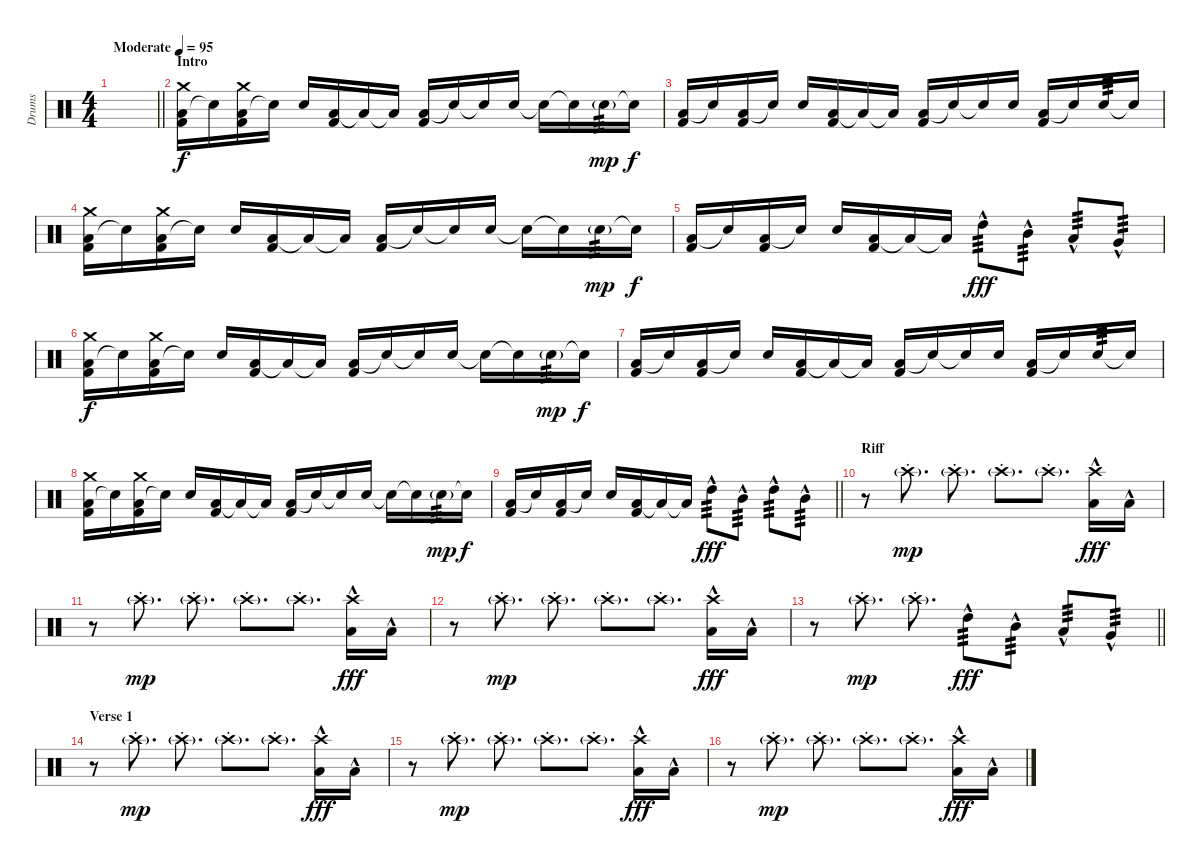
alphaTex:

\track ("Drums" "Drums") {instrument percussion}
\staff {score}
\articulation defaults
\ts (4 4)
\tempo (95 "Moderate")
\clef neutral
\barLineRight lightlight
\ks c
|
\section ("" "Intro")
("Low Floor Tom (hit)" "Kick (hit) 2" "Crash medium (hit)").16 "Snare (hit)"{t}.16 ("Low Floor Tom (hit)" "Kick (hit) 2" "Crash medium (hit)").16 "Snare (hit) 2"{t}.16 "Snare (hit) 2".16 ("Low Floor Tom (hit)" "Kick (hit) 2").16 "Low Floor Tom (hit)"{t}.16 "Low Floor Tom (hit)"{t}.16 ("Low Floor Tom (hit)" "Kick (hit) 2").16 "Snare (hit) 2"{t}.16 "Snare (hit)"{t}.16 "Snare (hit) 2".16 "Snare (hit) 2"{t}.16 "Snare (hit)"{t}.16 "Snare (hit) 2"{g}.16{tp 3 dy mp} "Snare (hit)"{t}.16{dy f} |
("Low Floor Tom (hit)" "Kick (hit) 2").16 "Snare (hit)"{t}.16 ("Low Floor Tom (hit)" "Kick (hit) 2").16 "Snare (hit) 2"{t}.16 "Snare (hit) 2".16 ("Low Floor Tom (hit)" "Kick (hit) 2").16 "Low Floor Tom (hit)"{t}.16 "Low Floor Tom (hit)"{t}.16 ("Low Floor Tom (hit)" "Kick (hit) 2").16 "Snare (hit) 2"{t}.16 "Snare (hit)"{t}.16 "Snare (hit) 2".16 ("Low Floor Tom (hit)" "Kick (hit) 2").16 "Snare (hit)"{t}.16 "Snare (hit) 2".16{tp 3} "Snare (hit)"{t}.16 |
("Low Floor Tom (hit)" "Kick (hit) 2" "Crash medium (hit)").16 "Snare (hit)"{t}.16 ("Low Floor Tom (hit)" "Kick (hit) 2" "Crash medium (hit)").16 "Snare (hit)"{t}.16 "Snare (hit) 2".16 ("Low Floor Tom (hit)" "Kick (hit) 2").16 "Low Floor Tom (hit)"{t}.16 "Low Floor Tom (hit)"{t}.16 ("Low Floor Tom (hit)" "Kick (hit) 2").16 "Snare (hit) 2"{t}.16 "Snare (hit)"{t}.16 "Snare (hit) 2".16 "Snare (hit) 2"{t}.16 "Snare (hit)"{t}.16 "Snare (hit) 2"{g}.16{tp 3 dy mp} "Snare (hit)"{t}.16{dy f} |
("Low Floor Tom (hit)" "Kick (hit) 2").16 "Snare (hit)"{t}.16 ("Low Floor Tom (hit)" "Kick (hit) 2").16 "Snare (hit) 2"{t}.16 "Snare (hit) 2".16 ("Low Floor Tom (hit)" "Kick (hit) 2").16 "Low Floor Tom (hit)"{t}.16 "Low Floor Tom (hit)"{t}.16 "High Tom (hit)"{hac}.8{tp 3 dy fff} "Mid Tom (hit)"{hac}.8{tp 3} "Low Tom (hit)"{hac}.8{tp 3} "Very Low Tom (hit)"{hac}.8{tp 3} |
("Low Floor Tom (hit)" "Kick (hit) 2" "Crash medium (hit)").16{dy f} "Snare (hit)"{t}.16 ("Low Floor Tom (hit)" "Kick (hit) 2" "Crash medium (hit)").16 "Snare (hit) 2"{t}.16 "Snare (hit) 2".16 ("Low Floor Tom (hit)" "Kick (hit) 2").16 "Low Floor Tom (hit)"{t}.16 "Low Floor Tom (hit)"{t}.16 ("Low Floor Tom (hit)" "Kick (hit) 2").16 "Snare (hit) 2"{t}.16 "Snare (hit)"{t}.16 "Snare (hit) 2".16 "Snare (hit) 2"{t}.16 "Snare (hit)"{t}.16 "Snare (hit) 2"{g}.16{tp 3 dy mp} "Snare (hit)"{t}.16{dy f} |
("Low Floor Tom (hit)" "Kick (hit) 2").16 "Snare (hit)"{t}.16 ("Low Floor Tom (hit)" "Kick (hit) 2").16 "Snare (hit) 2"{t}.16 "Snare (hit) 2".16 ("Low Floor Tom (hit)" "Kick (hit) 2").16 "Low Floor Tom (hit)"{t}.16 "Low Floor Tom (hit)"{t}.16 ("Low Floor Tom (hit)" "Kick (hit) 2").16 "Snare (hit) 2"{t}.16 "Snare (hit)"{t}.16 "Snare (hit) 2".16 ("Low Floor Tom (hit)" "Kick (hit) 2").16 "Snare (hit)"{t}.16 "Snare (hit) 2".16{tp 3} "Snare (hit)"{t}.16 |
("Low Floor Tom (hit)" "Kick (hit) 2" "Crash medium (hit)").16 "Snare (hit)"{t}.16 ("Low Floor Tom (hit)" "Kick (hit) 2" "Crash medium (hit)").16 "Snare (hit)"{t}.16 "Snare (hit) 2".16 ("Low Floor Tom (hit)" "Kick (hit) 2").16 "Low Floor Tom (hit)"{t}.16 "Low Floor Tom (hit)"{t}.16 ("Low Floor Tom (hit)" "Kick (hit) 2").16 "Snare (hit) 2"{t}.16 "Snare (hit)"{t}.16 "Snare (hit) 2".16 "Snare (hit) 2"{t}.16 "Snare (hit)"{t}.16 "Snare (hit) 2"{g}.16{tp 3 dy mp} "Snare (hit)"{t}.16{dy f} |
\barLineRight lightlight
("Low Floor Tom (hit)" "Kick (hit) 2").16 "Snare (hit)"{t}.16 ("Low Floor Tom (hit)" "Kick (hit) 2").16 "Snare (hit) 2"{t}.16 "Snare (hit) 2".16 ("Low Floor Tom (hit)" "Kick (hit) 2").16 "Low Floor Tom (hit)"{t}.16 "Low Floor Tom (hit)"{t}.16 "High Tom (hit)"{hac}.8{tp 3 dy fff} "Mid Tom (hit)"{hac}.8{tp 3} "High Tom (hit)"{hac}.8{tp 3} "Mid Tom (hit)"{hac}.8{tp 3} |
\section ("" "Riff")
r.8 "Crash high (hit)"{g st}.8{d dy mp} "Crash high (hit)"{g st}.8{d} "Crash high (hit)"{g st}.8{d} "Crash high (hit)"{g st}.8{d} ("Low Tom (hit)"{hac} "Crash high (hit)").16{dy fff} "Low Tom (hit)"{hac}.16 |
r.8 "Crash high (hit)"{g st}.8{d dy mp} "Crash high (hit)"{g st}.8{d} "Crash high (hit)"{g st}.8{d} "Crash high (hit)"{g st}.8{d} ("Low Tom (hit)"{hac} "Crash high (hit)").16{dy fff} "Low Tom (hit)"{hac}.16 |
r.8 "Crash high (hit)"{g st}.8{d dy mp} "Crash high (hit)"{g st}.8{d} "Crash high (hit)"{g st}.8{d} "Crash high (hit)"{g st}.8{d} ("Low Tom (hit)"{hac} "Crash high (hit)").16{dy fff} "Low Tom (hit)"{hac}.16 |
\barLineRight lightlight
r.8 "Crash high (hit)"{g st}.8{d dy mp} "Crash high (hit)"{g st}.8{d} "High Tom (hit)"{hac}.8{tp 3 dy fff} "Mid Tom (hit)"{hac}.8{tp 3} "Low Tom (hit)"{hac}.8{tp 3} "Very Low Tom (hit)"{hac}.8{tp 3} |
\section ("" "Verse 1")
r.8 "Crash high (hit)"{g st}.8{d dy mp} "Crash high (hit)"{g st}.8{d} "Crash high (hit)"{g st}.8{d} "Crash high (hit)"{g st}.8{d} ("Low Tom (hit)"{hac} "Crash high (hit)").16{dy fff} "Low Tom (hit)"{hac}.16 |
r.8 "Crash high (hit)"{g st}.8{d dy mp} "Crash high (hit)"{g st}.8{d} "Crash high (hit)"{g st}.8{d} "Crash high (hit)"{g st}.8{d} ("Low Tom (hit)"{hac} "Crash high (hit)").16{dy fff} "Low Tom (hit)"{hac}.16 |
r.8 "Crash high (hit)"{g st}.8{d dy mp} "Crash high (hit)"{g st}.8{d} "Crash high (hit)"{g st}.8{d} "Crash high (hit)"{g st}.8{d} ("Low Tom (hit)"{hac} "Crash high (hit)").16{dy fff} "Low Tom (hit)"{hac}.16
